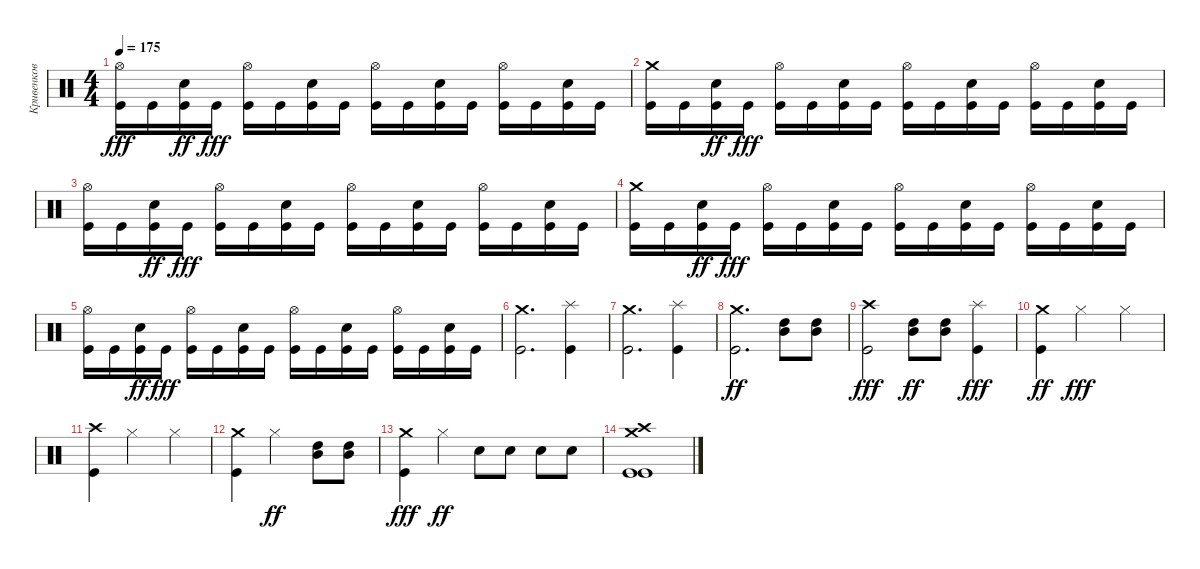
\track ("Кривенков" "Кривенков") {instrument percussion}
\staff {score}
\articulation defaults
\ts (4 4)
\tempo 175
\clef neutral
\ks c
("Hi-Hat (open)" "Kick (hit)").16{dy fff} "Kick (hit)".16 ("Kick (hit)" "Snare (hit) 2").16{dy ff} "Kick (hit)".16{dy fff} ("Hi-Hat (open)" "Kick (hit)").16 "Kick (hit)".16 ("Snare (hit) 2" "Kick (hit)").16 "Kick (hit)".16 ("Hi-Hat (open)" "Kick (hit)").16 "Kick (hit)".16 ("Snare (hit) 2" "Kick (hit)").16 "Kick (hit)".16 ("Hi-Hat (open)" "Kick (hit)").16 "Kick (hit)".16 ("Snare (hit) 2" "Kick (hit)").16 "Kick (hit)".16 |
("Crash medium (hit)" "Kick (hit)").16 "Kick (hit)".16 ("Kick (hit)" "Snare (hit) 2").16{dy ff} "Kick (hit)".16{dy fff} ("Hi-Hat (open)" "Kick (hit)").16 "Kick (hit)".16 ("Snare (hit) 2" "Kick (hit)").16 "Kick (hit)".16 ("Hi-Hat (open)" "Kick (hit)").16 "Kick (hit)".16 ("Snare (hit) 2" "Kick (hit)").16 "Kick (hit)".16 ("Hi-Hat (open)" "Kick (hit)").16 "Kick (hit)".16 ("Snare (hit) 2" "Kick (hit)").16 "Kick (hit)".16 |
("Hi-Hat (open)" "Kick (hit)").16 "Kick (hit)".16 ("Kick (hit)" "Snare (hit) 2").16{dy ff} "Kick (hit)".16{dy fff} ("Hi-Hat (open)" "Kick (hit)").16 "Kick (hit)".16 ("Snare (hit) 2" "Kick (hit)").16 "Kick (hit)".16 ("Hi-Hat (open)" "Kick (hit)").16 "Kick (hit)".16 ("Snare (hit) 2" "Kick (hit)").16 "Kick (hit)".16 ("Hi-Hat (open)" "Kick (hit)").16 "Kick (hit)".16 ("Snare (hit) 2" "Kick (hit)").16 "Kick (hit)".16 |
("Crash medium (hit)" "Kick (hit)").16 "Kick (hit)".16 ("Kick (hit)" "Snare (hit) 2").16{dy ff} "Kick (hit)".16{dy fff} ("Hi-Hat (open)" "Kick (hit)").16 "Kick (hit)".16 ("Snare (hit) 2" "Kick (hit)").16 "Kick (hit)".16 ("Hi-Hat (open)" "Kick (hit)").16 "Kick (hit)".16 ("Snare (hit) 2" "Kick (hit)").16 "Kick (hit)".16 ("Hi-Hat (open)" "Kick (hit)").16 "Kick (hit)".16 ("Snare (hit) 2" "Kick (hit)").16 "Kick (hit)".16 |
("Hi-Hat (open)" "Kick (hit)").16 "Kick (hit)".16 ("Kick (hit)" "Snare (hit) 2").16{dy ff} "Kick (hit)".16{dy fff} ("Hi-Hat (open)" "Kick (hit)").16 "Kick (hit)".16 ("Snare (hit) 2" "Kick (hit)").16 "Kick (hit)".16 ("Hi-Hat (open)" "Kick (hit)").16 "Kick (hit)".16 ("Snare (hit) 2" "Kick (hit)").16 "Kick (hit)".16 ("Hi-Hat (open)" "Kick (hit)").16 "Kick (hit)".16 ("Snare (hit) 2" "Kick (hit)").16 "Kick (hit)".16 |
("Crash medium (hit)" "Kick (hit)").2{d} ("Splash (hit)" "Kick (hit)").4 |
("Crash medium (hit)" "Kick (hit)").2{d} ("Splash (hit)" "Kick (hit)").4 |
("Kick (hit)" "Crash medium (hit)").2{d dy ff} ("Mid Tom (hit)" "High Tom (hit)").8 ("High Tom (hit)" "Mid Tom (hit)").8 |
("Crash high (hit)" "Kick (hit)").2{dy fff} ("High Tom (hit)" "Mid Tom (hit)").8{dy ff} ("High Tom (hit)" "Mid Tom (hit)").8 ("Splash (hit)" "Kick (hit)").4{dy fff} |
("Kick (hit)" "Crash medium (hit)").4{dy ff} "Hi-Hat (closed)".2{dy fff} "Hi-Hat (closed)".4 |
("Crash high (hit)" "Kick (hit)").4 "Hi-Hat (closed)".2 "Hi-Hat (closed)".4 |
("Crash medium (hit)" "Kick (hit)").4 "Hi-Hat (closed)".2{dy ff} ("High Tom (hit)" "Mid Tom (hit)").8 ("High Tom (hit)" "Mid Tom (hit)").8 |
("Crash medium (hit)" "Kick (hit)").4{dy fff} "Hi-Hat (closed)".4{dy ff} "Snare (hit) 2".8 "Snare (hit) 2".8 "Snare (hit) 2".8 "Snare (hit) 2".8 |
("Crash high (hit)" "Kick (hit)" "Crash medium (hit)" "Kick (hit)").1
